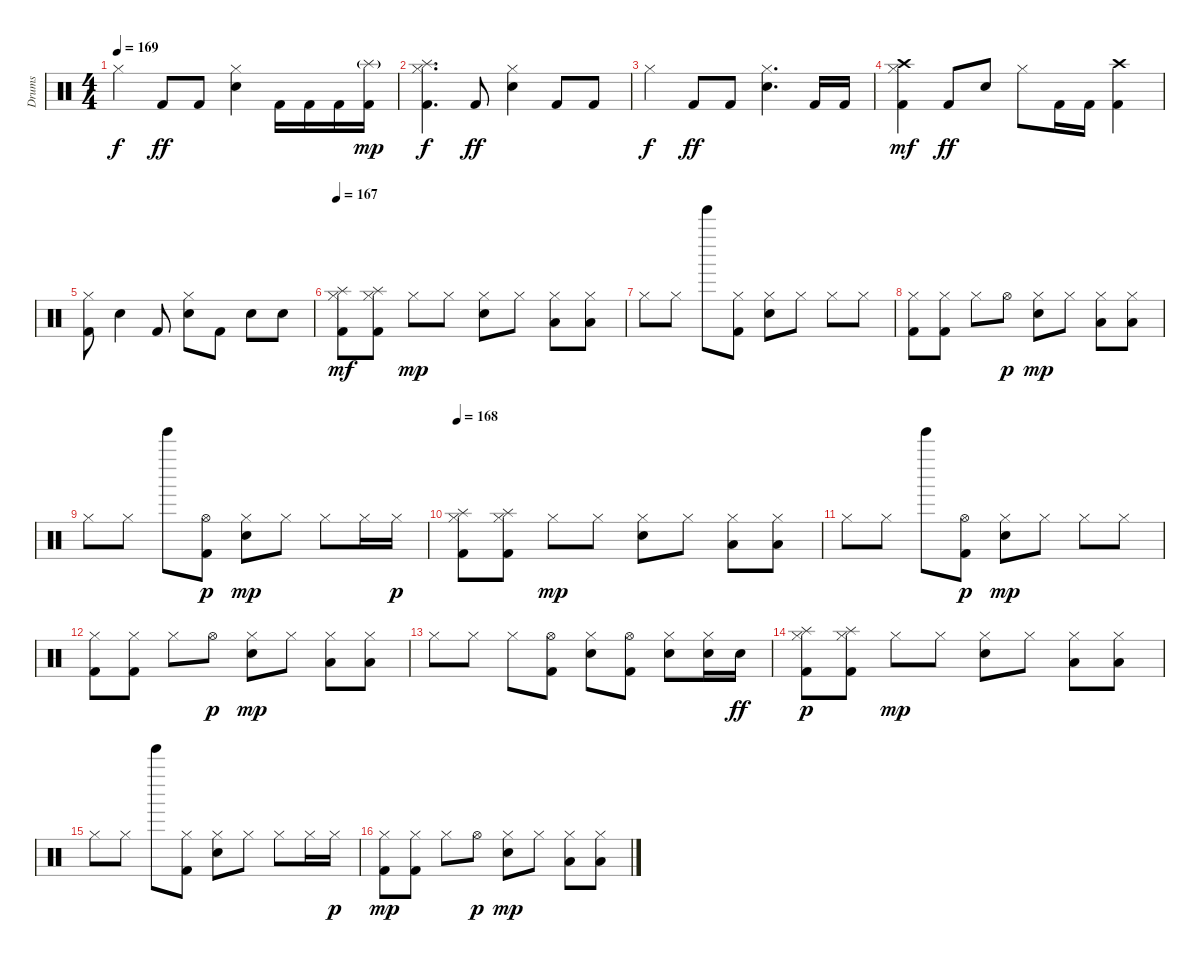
\track ("Drums" "Drums") {instrument percussion}
\staff {score}
\articulation defaults
\ts (4 4)
\tempo 169
\clef neutral
\ks c "Hi-Hat (closed)".4{dy f} "Kick (hit) 2".8{dy ff} "Kick (hit) 2".8
("Electric Snare (hit)" "Hi-Hat (closed)").4 "Kick (hit) 2".16 "Kick (hit) 2".16 "Kick (hit) 2".16 ("Kick (hit) 2" "Splash (hit)"{g}).16{dy mp} |
("Kick (hit) 2" "Hi-Hat (closed)" "Splash (hit)").4{d dy f} "Kick (hit) 2".8{dy ff} ("Electric Snare (hit)" "Hi-Hat (closed)").4 "Kick (hit) 2".8 "Kick (hit) 2".8 |
"Hi-Hat (closed)".4{dy f} "Kick (hit) 2".8{dy ff} "Kick (hit) 2".8 ("Electric Snare (hit)" "Hi-Hat (closed)").4{d} "Kick (hit) 2".16 "Kick (hit) 2".16 |
("Kick (hit) 2" "Hi-Hat (closed)" "Crash high (hit)").4{dy mf} "Kick (hit) 2".8{dy ff} "Electric Snare (hit)".8 "Hi-Hat (closed)".8 "Kick (hit) 2".16 "Kick (hit) 2".16 ("Kick (hit) 2" "Crash high (hit)").4 |
("Kick (hit) 2" "Hi-Hat (closed)").8 "Electric Snare (hit)".4 "Kick (hit) 2".8 ("Electric Snare (hit)" "Hi-Hat (closed)").8 "Kick (hit) 2".8 "Electric Snare (hit)".8 "Electric Snare (hit)".8 |
\tempo 167
("Kick (hit) 2" "Hi-Hat (closed)" "Splash (hit)").8{dy mf} ("Kick (hit) 2" "Hi-Hat (closed)" "Splash (hit)").8 "Hi-Hat (closed)".8{dy mp} "Hi-Hat (closed)".8 ("Electric Snare (hit)" "Hi-Hat (closed)").8 "Hi-Hat (closed)".8 ("Low Tom (hit)" "Hi-Hat (closed)").8 ("Low Tom (hit)" "Hi-Hat (closed)").8 |
"Hi-Hat (closed)".8 "Hi-Hat (closed)".8 "Tinkle Bell (hit)".8 ("Kick (hit) 2" "Hi-Hat (closed)").8 ("Electric Snare (hit)" "Hi-Hat (closed)").8 "Hi-Hat (closed)".8 "Hi-Hat (closed)".8 "Hi-Hat (closed)".8 |
("Kick (hit) 2" "Hi-Hat (closed)").8 ("Kick (hit) 2" "Hi-Hat (closed)").8 "Hi-Hat (closed)".8 "Hi-Hat (open)".8{dy p} ("Electric Snare (hit)" "Hi-Hat (closed)").8{dy mp} "Hi-Hat (closed)".8 ("Low Tom (hit)" "Hi-Hat (closed)").8 ("Low Tom (hit)" "Hi-Hat (closed)").8 |
"Hi-Hat (closed)".8 "Hi-Hat (closed)".8 "Tinkle Bell (hit)".8 ("Kick (hit) 2" "Hi-Hat (open)").8{dy p} ("Electric Snare (hit)" "Hi-Hat (closed)").8{dy mp} "Hi-Hat (closed)".8 "Hi-Hat (closed)".8 "Hi-Hat (closed)".16 "Hi-Hat (closed)".16{dy p} |
\tempo 168
("Kick (hit) 2" "Hi-Hat (closed)" "Splash (hit)").8 ("Kick (hit) 2" "Hi-Hat (closed)" "Splash (hit)").8 "Hi-Hat (closed)".8{dy mp} "Hi-Hat (closed)".8 ("Electric Snare (hit)" "Hi-Hat (closed)").8 "Hi-Hat (closed)".8 ("Low Tom (hit)" "Hi-Hat (closed)").8 ("Low Tom (hit)" "Hi-Hat (closed)").8 |
"Hi-Hat (closed)".8 "Hi-Hat (closed)".8 "Tinkle Bell (hit)".8 ("Kick (hit) 2" "Hi-Hat (open)").8{dy p} ("Electric Snare (hit)" "Hi-Hat (closed)").8{dy mp} "Hi-Hat (closed)".8 "Hi-Hat (closed)".8 "Hi-Hat (closed)".8 |
("Kick (hit) 2" "Hi-Hat (closed)").8 ("Kick (hit) 2" "Hi-Hat (closed)").8 "Hi-Hat (closed)".8 "Hi-Hat (open)".8{dy p} ("Electric Snare (hit)" "Hi-Hat (closed)").8{dy mp} "Hi-Hat (closed)".8 ("Low Tom (hit)" "Hi-Hat (closed)").8 ("Low Tom (hit)" "Hi-Hat (closed)").8 |
"Hi-Hat (closed)".8 "Hi-Hat (closed)".8 "Hi-Hat (closed)".8 ("Kick (hit) 2" "Hi-Hat (open)").8 ("Electric Snare (hit)" "Hi-Hat (closed)").8 ("Kick (hit) 2" "Hi-Hat (open)").8 ("Electric Snare (hit)" "Hi-Hat (closed)").8 ("Electric Snare (hit)" "Hi-Hat (closed)").16 "Electric Snare (hit)".16{dy ff} |
("Kick (hit) 2" "Hi-Hat (closed)" "Splash (hit)").8{dy p} ("Kick (hit) 2" "Hi-Hat (closed)" "Splash (hit)").8 "Hi-Hat (closed)".8{dy mp} "Hi-Hat (closed)".8 ("Electric Snare (hit)" "Hi-Hat (closed)").8 "Hi-Hat (closed)".8 ("Low Tom (hit)" "Hi-Hat (closed)").8 ("Low Tom (hit)" "Hi-Hat (closed)").8 |
"Hi-Hat (closed)".8 "Hi-Hat (closed)".8 "Tinkle Bell (hit)".8 ("Kick (hit) 2" "Hi-Hat (closed)").8 ("Electric Snare (hit)" "Hi-Hat (closed)").8 "Hi-Hat (closed)".8 "Hi-Hat (closed)".8 "Hi-Hat (closed)".16 "Hi-Hat (closed)".16{dy p} |
("Kick (hit) 2" "Hi-Hat (closed)").8{dy mp} ("Kick (hit) 2" "Hi-Hat (closed)").8 "Hi-Hat (closed)".8 "Hi-Hat (open)".8{dy p} ("Electric Snare (hit)" "Hi-Hat (closed)").8{dy mp} "Hi-Hat (closed)".8 ("Low Tom (hit)" "Hi-Hat (closed)").8 ("Low Tom (hit)" "Hi-Hat (closed)").8
